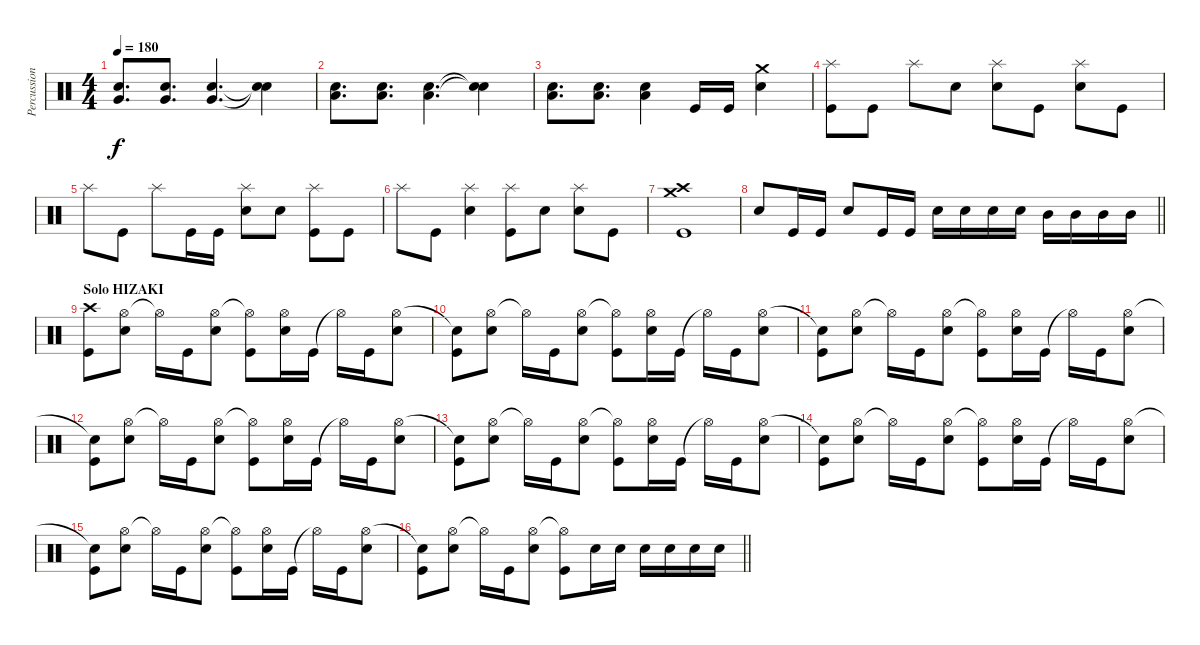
\track ("Percussion" "Percussion") {instrument percussion}
\staff {score}
\articulation defaults
\ts (4 4)
\tempo 180
\clef neutral
\ks c
("Very Low Tom (hit)" "Electric Snare (hit)").8{d dy f} ("Very Low Tom (hit)" "Electric Snare (hit)").8{d} ("Very Low Tom (hit)" "Electric Snare (hit)").4{d} ("Snare (hit)"{t} "Snare (hit)"{t}).4 |
("Low Floor Tom (hit)" "Electric Snare (hit)").8{d} ("Low Floor Tom (hit)" "Electric Snare (hit)").8{d} ("Low Floor Tom (hit)" "Electric Snare (hit)").4{d} ("Snare (hit)"{t} "Snare (hit)"{t}).4 |
("Low Floor Tom (hit)" "Electric Snare (hit)").8{d} ("Low Floor Tom (hit)" "Electric Snare (hit)").8{d} ("Low Floor Tom (hit)" "Electric Snare (hit)").4 "Kick (hit)".16 "Kick (hit)".16 ("Crash medium (hit)" "Electric Snare (hit)").4 |
("Splash (hit)" "Kick (hit)").8 "Kick (hit)".8 "Splash (hit)".8 "Electric Snare (hit)".8 ("Splash (hit)" "Electric Snare (hit)").8 "Kick (hit)".8 ("Splash (hit)" "Electric Snare (hit)").8 "Kick (hit)".8 |
"Splash (hit)".8 "Kick (hit)".8 "Splash (hit)".8 "Kick (hit)".16 "Kick (hit)".16 ("Splash (hit)" "Electric Snare (hit)").8 "Electric Snare (hit)".8 ("Splash (hit)" "Kick (hit)").8 "Kick (hit)".8 |
"Splash (hit)".8 "Kick (hit)".8 ("Splash (hit)" "Electric Snare (hit)").4 ("Splash (hit)" "Kick (hit)").8 "Electric Snare (hit)".8 ("Splash (hit)" "Electric Snare (hit)").8 "Kick (hit)".8 |
("Crash medium (hit)" "Crash high (hit)" "Kick (hit)").1 |
\barLineRight lightlight "Electric Snare (hit)".8 "Kick (hit)".16 "Kick (hit)".16 "Electric Snare (hit)".8 "Kick (hit)".16 "Kick (hit)".16 "Electric Snare (hit)".16 "Electric Snare (hit)".16 "Electric Snare (hit)".16 "Electric Snare (hit)".16 "Mid Tom (hit)".16 "Mid Tom (hit)".16 "Mid Tom (hit)".16 "Mid Tom (hit)".16
|
\section ("" "Solo HIZAKI")
("Crash high (hit)" "Kick (hit)").8 ("Hi-Hat (open)" "Electric Snare (hit)").8 "Hi-Hat (open)"{t}.16 "Kick (hit)".16 ("Hi-Hat (open)" "Electric Snare (hit)").8 ("Hi-Hat (open)"{t} "Kick (hit)").8 ("Hi-Hat (open)" "Electric Snare (hit)").16 "Kick (hit)".16 "Hi-Hat (open)"{t}.16 "Kick (hit)".16 ("Hi-Hat (open)" "Electric Snare (hit)").8 |
("Snare (hit)"{t} "Kick (hit)").8 ("Hi-Hat (open)" "Electric Snare (hit)").8 "Hi-Hat (open)"{t}.16 "Kick (hit)".16 ("Hi-Hat (open)" "Electric Snare (hit)").8 ("Hi-Hat (open)"{t} "Kick (hit)").8 ("Hi-Hat (open)" "Electric Snare (hit)").16 "Kick (hit)".16 "Hi-Hat (open)"{t}.16 "Kick (hit)".16 ("Hi-Hat (open)" "Electric Snare (hit)").8 |
("Snare (hit)"{t} "Kick (hit)").8 ("Hi-Hat (open)" "Electric Snare (hit)").8 "Hi-Hat (open)"{t}.16 "Kick (hit)".16 ("Hi-Hat (open)" "Electric Snare (hit)").8 ("Hi-Hat (open)"{t} "Kick (hit)").8 ("Hi-Hat (open)" "Electric Snare (hit)").16 "Kick (hit)".16 "Hi-Hat (open)"{t}.16 "Kick (hit)".16 ("Hi-Hat (open)" "Electric Snare (hit)").8 |
("Snare (hit)"{t} "Kick (hit)").8 ("Hi-Hat (open)" "Electric Snare (hit)").8 "Hi-Hat (open)"{t}.16 "Kick (hit)".16 ("Hi-Hat (open)" "Electric Snare (hit)").8 ("Hi-Hat (open)"{t} "Kick (hit)").8 ("Hi-Hat (open)" "Electric Snare (hit)").16 "Kick (hit)".16 "Hi-Hat (open)"{t}.16 "Kick (hit)".16 ("Hi-Hat (open)" "Electric Snare (hit)").8 |
("Snare (hit)"{t} "Kick (hit)").8 ("Hi-Hat (open)" "Electric Snare (hit)").8 "Hi-Hat (open)"{t}.16 "Kick (hit)".16 ("Hi-Hat (open)" "Electric Snare (hit)").8 ("Hi-Hat (open)"{t} "Kick (hit)").8 ("Hi-Hat (open)" "Electric Snare (hit)").16 "Kick (hit)".16 "Hi-Hat (open)"{t}.16 "Kick (hit)".16 ("Hi-Hat (open)" "Electric Snare (hit)").8 |
("Snare (hit)"{t} "Kick (hit)").8 ("Hi-Hat (open)" "Electric Snare (hit)").8 "Hi-Hat (open)"{t}.16 "Kick (hit)".16 ("Hi-Hat (open)" "Electric Snare (hit)").8 ("Hi-Hat (open)"{t} "Kick (hit)").8 ("Hi-Hat (open)" "Electric Snare (hit)").16 "Kick (hit)".16 "Hi-Hat (open)"{t}.16 "Kick (hit)".16 ("Hi-Hat (open)" "Electric Snare (hit)").8 |
("Snare (hit)"{t} "Kick (hit)").8 ("Hi-Hat (open)" "Electric Snare (hit)").8 "Hi-Hat (open)"{t}.16 "Kick (hit)".16 ("Hi-Hat (open)" "Electric Snare (hit)").8 ("Hi-Hat (open)"{t} "Kick (hit)").8 ("Hi-Hat (open)" "Electric Snare (hit)").16 "Kick (hit)".16 "Hi-Hat (open)"{t}.16 "Kick (hit)".16 ("Hi-Hat (open)" "Electric Snare (hit)").8 |
\barLineRight lightlight
("Snare (hit)"{t} "Kick (hit)").8 ("Hi-Hat (open)" "Electric Snare (hit)").8 "Hi-Hat (open)"{t}.16 "Kick (hit)".16 ("Hi-Hat (open)" "Electric Snare (hit)").8 ("Hi-Hat (open)"{t} "Kick (hit)").8 "Electric Snare (hit)".16 "Electric Snare (hit)".16 "Electric Snare (hit)".16 "Electric Snare (hit)".16 "Electric Snare (hit)".16 "Electric Snare (hit)".16
